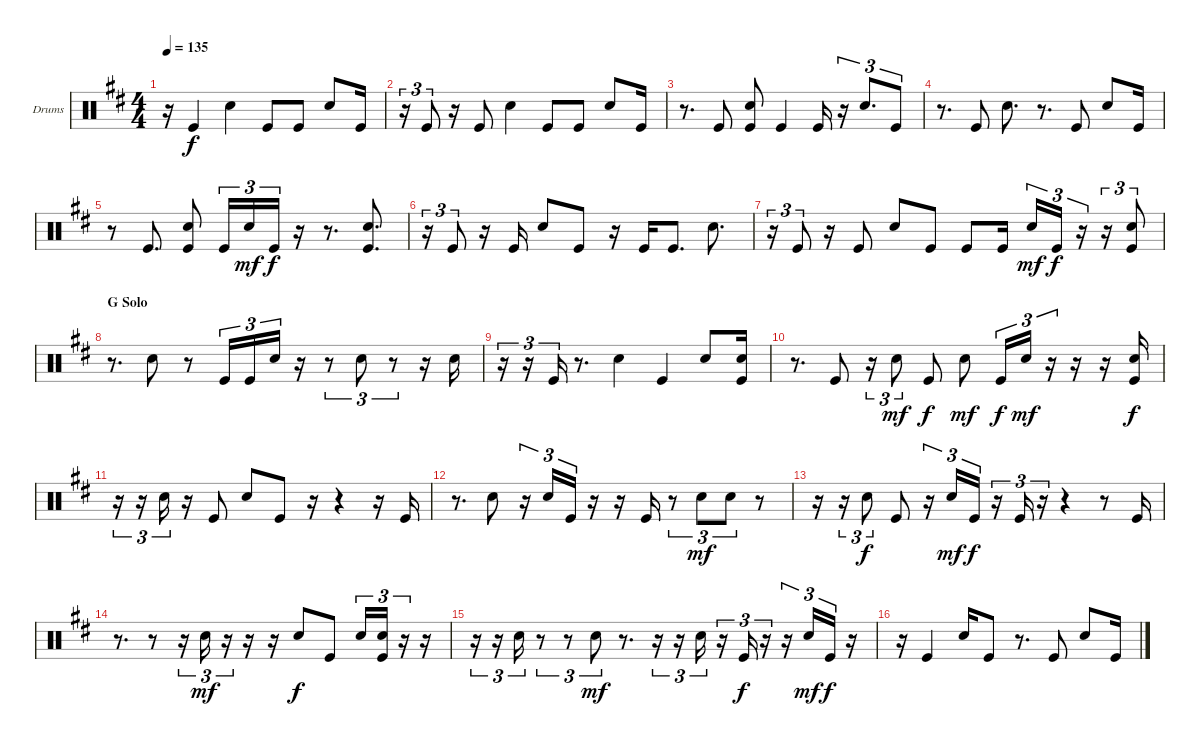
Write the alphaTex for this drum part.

\bracketExtendMode groupsimilarinstruments
\firstSystemTrackNameOrientation horizontal
\otherSystemsTrackNameOrientation horizontal
\track ("Kick" "Drums") {instrument percussion}
\staff {score}
\articulation defaults
\ts (4 4)
\tempo 135
\clef neutral
\ks d
r.16{dy f} "Kick (hit)".4 "Snare (hit) 2".4 "Kick (hit)".8 "Kick (hit)".8 "Snare (hit) 2".8 "Kick (hit)".16 |
r.16{tu (3 2)} "Kick (hit)".8{tu (3 2)} r.16 "Kick (hit)".8 "Snare (hit) 2".4 "Kick (hit)".8 "Kick (hit)".8 "Snare (hit) 2".8 "Kick (hit)".16 |
r.8{d} "Kick (hit)".8 ("Kick (hit)" "Snare (hit) 2").8 "Kick (hit)".4 "Kick (hit)".16 r.16{tu (3 2)} "Snare (hit) 2".8{d tu (3 2)} "Kick (hit)".8{tu (3 2)} |
r.8{d} "Kick (hit)".8 "Snare (hit) 2".8{d} r.8{d} "Kick (hit)".8 "Snare (hit) 2".8 "Kick (hit)".16 |
r.8 "Kick (hit)".8{d} ("Kick (hit)" "Snare (hit) 2").8 "Kick (hit)".16{tu (3 2)} "Snare (hit) 2".16{tu (3 2) dy mf} "Kick (hit)".16{tu (3 2) dy f} r.16 r.8{d} ("Kick (hit)" "Snare (hit) 2").8{d} |
r.16{tu (3 2)} "Kick (hit)".8{tu (3 2)} r.16 "Kick (hit)".16 "Snare (hit) 2".8 "Kick (hit)".8 r.16 "Kick (hit)".16 "Kick (hit)".8{d} "Snare (hit) 2".8{d} |
r.16{tu (3 2)} "Kick (hit)".8{tu (3 2)} r.16 "Kick (hit)".8 "Snare (hit) 2".8 "Kick (hit)".8 "Kick (hit)".8 "Kick (hit)".16 "Snare (hit) 2".16{tu (3 2) dy mf} "Kick (hit)".16{tu (3 2) dy f} r.16{tu (3 2)} r.16{tu (3 2)} ("Kick (hit)" "Snare (hit) 2").8{tu (3 2)} |
\section ("" "G Solo")
r.8{d} "Snare (hit) 2".8 r.8 "Kick (hit)".16{tu (3 2)} "Kick (hit)".16{tu (3 2)} "Snare (hit) 2".16{tu (3 2)} r.16 r.8{tu (3 2)} "Snare (hit) 2".8{tu (3 2)} r.8{tu (3 2)} r.16 "Snare (hit) 2".16 |
r.16{tu (3 2)} r.16{tu (3 2)} "Kick (hit)".16{tu (3 2)} r.8{d} "Snare (hit) 2".4 "Kick (hit)".4 "Snare (hit) 2".8 ("Snare (hit) 2" "Kick (hit)").16 |
r.8{d} "Kick (hit)".8 r.16{tu (3 2)} "Snare (hit) 2".8{tu (3 2) dy mf} "Kick (hit)".8{dy f} "Snare (hit) 2".8{dy mf} "Kick (hit)".16{tu (3 2) dy f} "Snare (hit) 2".16{tu (3 2) dy mf} r.16{tu (3 2)} r.16 r.16 ("Kick (hit)" "Snare (hit) 2").16{dy f} |
r.16{tu (3 2)} r.16{tu (3 2)} "Snare (hit) 2".16{tu (3 2)} r.16 "Kick (hit)".8 "Snare (hit) 2".8 "Kick (hit)".8 r.16 r.4 r.16 "Kick (hit)".16 |
r.8{d} "Snare (hit) 2".8 r.16{tu (3 2)} "Snare (hit) 2".16{tu (3 2)} "Kick (hit)".16{tu (3 2)} r.16 r.16 "Kick (hit)".16 r.8{tu (3 2)} "Snare (hit) 2".8{tu (3 2) dy mf} "Snare (hit) 2".8{tu (3 2)} r.8 |
\scale
0.538571 r.16 r.16{tu (3 2)} "Snare (hit) 2".8{tu (3 2) dy f} "Kick (hit)".8 r.16{tu (3 2)} "Snare (hit) 2".16{tu (3 2) dy mf} "Kick (hit)".16{tu (3 2) dy f} r.16{tu (3 2)} "Kick (hit)".16{tu (3 2)} r.16{tu (3 2)} r.4 r.8 "Kick (hit)".16 |
\scale
0.459665 r.8{d} r.8 r.16{tu (3 2)} "Snare (hit) 2".16{tu (3 2) dy mf} r.16{tu (3 2)} r.16 r.16 "Snare (hit) 2".8{dy f} "Kick (hit)".8 "Snare (hit) 2".16{tu (3 2)} ("Snare (hit) 2" "Kick (hit)").16{tu (3 2)} r.16{tu (3 2)} r.16 |
r.16{tu (3 2)} r.16{tu (3 2)} "Snare (hit) 2".16{tu (3 2)} r.8{tu (3 2)} r.8{tu (3 2)} "Snare (hit) 2".8{tu (3 2) dy mf} r.8{d} r.16{tu (3 2)} r.16{tu (3 2)} "Snare (hit) 2".16{tu (3 2)} r.16{tu (3 2)} "Kick (hit)".16{tu (3 2) dy f} r.16{tu (3 2)} r.16{tu (3 2)} "Snare (hit) 2".16{tu (3 2) dy mf} "Kick (hit)".16{tu (3 2) dy f} r.16 |
r.16 "Kick (hit)".4 "Snare (hit) 2".16 "Kick (hit)".8 r.8{d} "Kick (hit)".8 "Snare (hit) 2".8 "Kick (hit)".16
